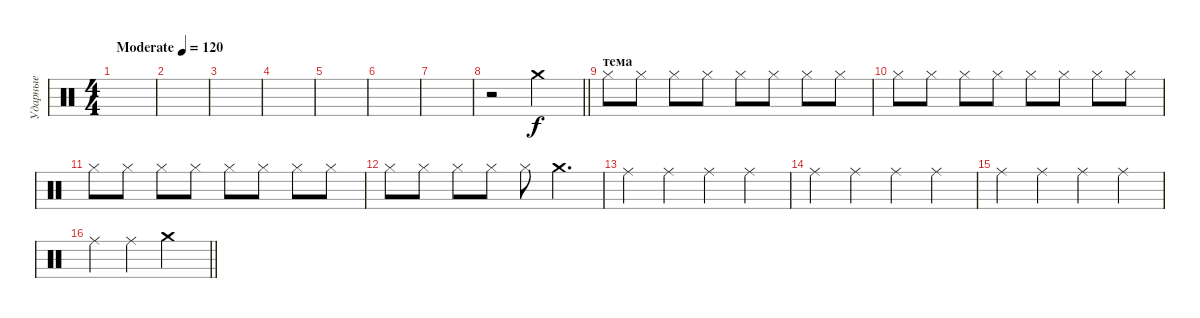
\track ("Ударные" "Ударные") {instrument percussion}
\staff {score}
\articulation defaults
\ts (4 4)
\tempo (120 "Moderate")
\clef neutral
\ks c
|
|
|
|
|
|
|
\barLineRight lightlight
r.2 "Crash medium (hit)".2 |
\section ("" "тема")
"Hi-Hat (closed)".8 "Hi-Hat (closed)".8 "Hi-Hat (closed)".8 "Hi-Hat (closed)".8 "Hi-Hat (closed)".8 "Hi-Hat (closed)".8 "Hi-Hat (closed)".8 "Hi-Hat (closed)".8 |
"Hi-Hat (closed)".8 "Hi-Hat (closed)".8 "Hi-Hat (closed)".8 "Hi-Hat (closed)".8 "Hi-Hat (closed)".8 "Hi-Hat (closed)".8 "Hi-Hat (closed)".8 "Hi-Hat (closed)".8 |
"Hi-Hat (closed)".8 "Hi-Hat (closed)".8 "Hi-Hat (closed)".8 "Hi-Hat (closed)".8 "Hi-Hat (closed)".8 "Hi-Hat (closed)".8 "Hi-Hat (closed)".8 "Hi-Hat (closed)".8 |
"Hi-Hat (closed)".8 "Hi-Hat (closed)".8 "Hi-Hat (closed)".8 "Hi-Hat (closed)".8 "Hi-Hat (closed)".8 "Crash medium (hit)".4{d} |
"Ride (middle)".4 "Ride (middle)".4 "Ride (middle)".4 "Ride (middle)".4 |
"Ride (middle)".4 "Ride (middle)".4 "Ride (middle)".4 "Ride (middle)".4 |
"Ride (middle)".4 "Ride (middle)".4 "Ride (middle)".4 "Ride (middle)".4 |
\barLineRight lightlight "Ride (middle)".4 "Ride (middle)".4 "Crash medium (hit)".2
